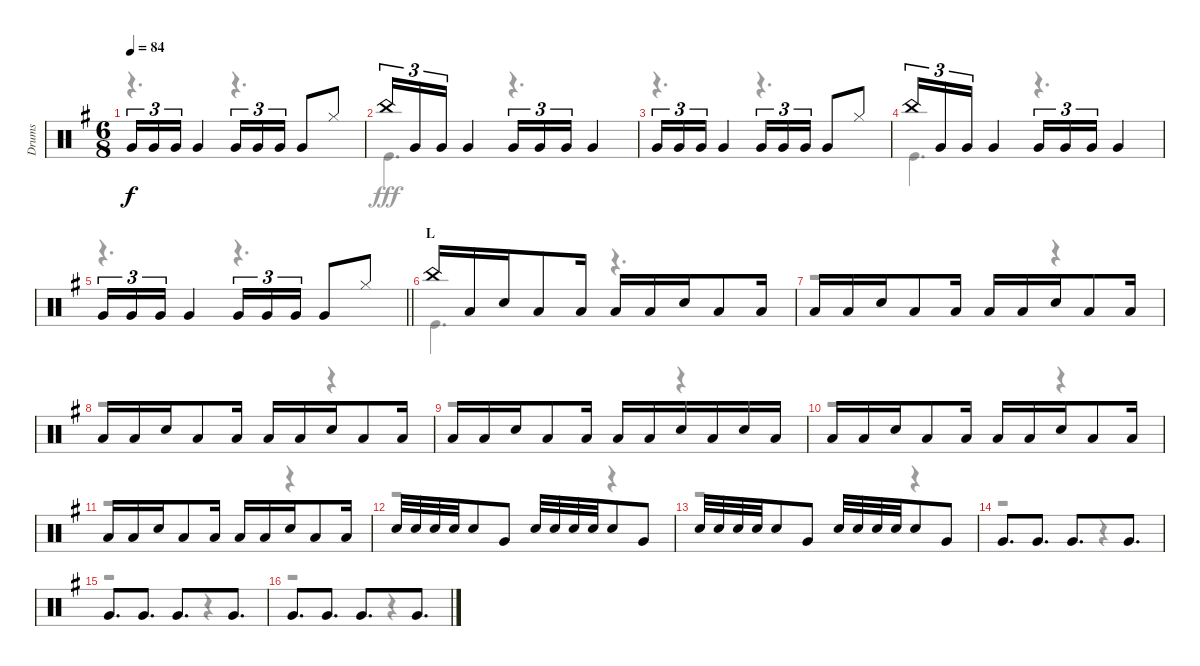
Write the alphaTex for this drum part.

\track ("Drums" "Drums") {instrument percussion}
\staff {score}
\articulation defaults
\voice
\ts (6 8)
\tempo 84
\clef neutral
\ks g "Very Low Tom (hit)".16{tu (3 2) dy f} "Very Low Tom (hit)".16{tu (3 2)} "Very Low Tom (hit)".16{tu (3 2)} "Very Low Tom (hit)".4 "Very Low Tom (hit)".16{tu (3 2)} "Very Low Tom (hit)".16{tu (3 2)} "Very Low Tom (hit)".16{tu (3 2)} "Very Low Tom (hit)".8 "Hi-Hat (closed)".8
|
"China (hit)".16{tu (3 2)} "Very Low Tom (hit)".16{tu (3 2)} "Very Low Tom (hit)".16{tu (3 2)} "Very Low Tom (hit)".4 "Very Low Tom (hit)".16{tu (3 2)} "Very Low Tom (hit)".16{tu (3 2)} "Very Low Tom (hit)".16{tu (3 2)} "Very Low Tom (hit)".4 |
"Very Low Tom (hit)".16{tu (3 2)} "Very Low Tom (hit)".16{tu (3 2)} "Very Low Tom (hit)".16{tu (3 2)} "Very Low Tom (hit)".4 "Very Low Tom (hit)".16{tu (3 2)} "Very Low Tom (hit)".16{tu (3 2)} "Very Low Tom (hit)".16{tu (3 2)} "Very Low Tom (hit)".8 "Hi-Hat (closed)".8 |
"China (hit)".16{tu (3 2)} "Very Low Tom (hit)".16{tu (3 2)} "Very Low Tom (hit)".16{tu (3 2)} "Very Low Tom (hit)".4 "Very Low Tom (hit)".16{tu (3 2)} "Very Low Tom (hit)".16{tu (3 2)} "Very Low Tom (hit)".16{tu (3 2)} "Very Low Tom (hit)".4 |
\barLineRight lightlight "Very Low Tom (hit)".16{tu (3 2)} "Very Low Tom (hit)".16{tu (3 2)} "Very Low Tom (hit)".16{tu (3 2)} "Very Low Tom (hit)".4 "Very Low Tom (hit)".16{tu (3 2)} "Very Low Tom (hit)".16{tu (3 2)} "Very Low Tom (hit)".16{tu (3 2)} "Very Low Tom (hit)".8 "Hi-Hat (closed)".8
|
\section ("" "L")
"China (hit)".16 "Low Tom (hit)".16 "Snare (hit) 2".16 "Low Tom (hit)".8 "Low Tom (hit)".16 "Low Tom (hit)".16 "Low Tom (hit)".16 "Snare (hit) 2".16 "Low Tom (hit)".8 "Low Tom (hit)".16 |
"Low Tom (hit)".16 "Low Tom (hit)".16 "Snare (hit) 2".16 "Low Tom (hit)".8 "Low Tom (hit)".16 "Low Tom (hit)".16 "Low Tom (hit)".16 "Snare (hit) 2".16 "Low Tom (hit)".8 "Low Tom (hit)".16 |
"Low Tom (hit)".16 "Low Tom (hit)".16 "Snare (hit) 2".16 "Low Tom (hit)".8 "Low Tom (hit)".16 "Low Tom (hit)".16 "Low Tom (hit)".16 "Snare (hit) 2".16 "Low Tom (hit)".8 "Low Tom (hit)".16 |
"Low Tom (hit)".16 "Low Tom (hit)".16 "Snare (hit) 2".16 "Low Tom (hit)".8 "Low Tom (hit)".16 "Low Tom (hit)".16 "Low Tom (hit)".16 "Snare (hit) 2".16 "Low Tom (hit)".16 "Snare (hit) 2".16 "Low Tom (hit)".16 |
"Low Tom (hit)".16 "Low Tom (hit)".16 "Snare (hit) 2".16 "Low Tom (hit)".8 "Low Tom (hit)".16 "Low Tom (hit)".16 "Low Tom (hit)".16 "Snare (hit) 2".16 "Low Tom (hit)".8 "Low Tom (hit)".16 |
"Low Tom (hit)".16 "Low Tom (hit)".16 "Snare (hit) 2".16 "Low Tom (hit)".8 "Low Tom (hit)".16 "Low Tom (hit)".16 "Low Tom (hit)".16 "Snare (hit) 2".16 "Low Tom (hit)".8 "Low Tom (hit)".16 |
"Snare (hit) 2".32 "Snare (hit) 2".32 "Snare (hit) 2".32 "Snare (hit) 2".32 "Snare (hit) 2".8 "Very Low Tom (hit)".8 "Snare (hit) 2".32 "Snare (hit) 2".32 "Snare (hit) 2".32 "Snare (hit) 2".32 "Snare (hit) 2".8 "Very Low Tom (hit)".8 |
"Snare (hit) 2".32 "Snare (hit) 2".32 "Snare (hit) 2".32 "Snare (hit) 2".32 "Snare (hit) 2".8 "Very Low Tom (hit)".8 "Snare (hit) 2".32 "Snare (hit) 2".32 "Snare (hit) 2".32 "Snare (hit) 2".32 "Snare (hit) 2".8 "Very Low Tom (hit)".8 |
"Very Low Tom (hit)".8{d} "Very Low Tom (hit)".8{d} "Very Low Tom (hit)".8{d} "Very Low Tom (hit)".8{d} |
"Very Low Tom (hit)".8{d} "Very Low Tom (hit)".8{d} "Very Low Tom (hit)".8{d} "Very Low Tom (hit)".8{d} |
"Very Low Tom (hit)".8{d} "Very Low Tom (hit)".8{d} "Very Low Tom (hit)".8{d} "Very Low Tom (hit)".8{d}
\voice
\clef neutral
\ottava regular
\simile none
\ks g
r.4{d dy fff} r.4{d} |
"Kick (hit)".4{d} r.4{d} |
r.4{d} r.4{d} |
"Kick (hit)".4{d} r.4{d} |
\barLineRight lightlight
r.4{d} r.4{d} |
"Kick (hit)".4{d} r.4{d} |
r.2 r.4 |
r.2 r.4 |
r.2 r.4 |
r.2 r.4 |
r.2 r.4 |
r.2 r.4 |
r.2 r.4 |
r.2 r.4 |
r.2 r.4 |
r.2 r.4
